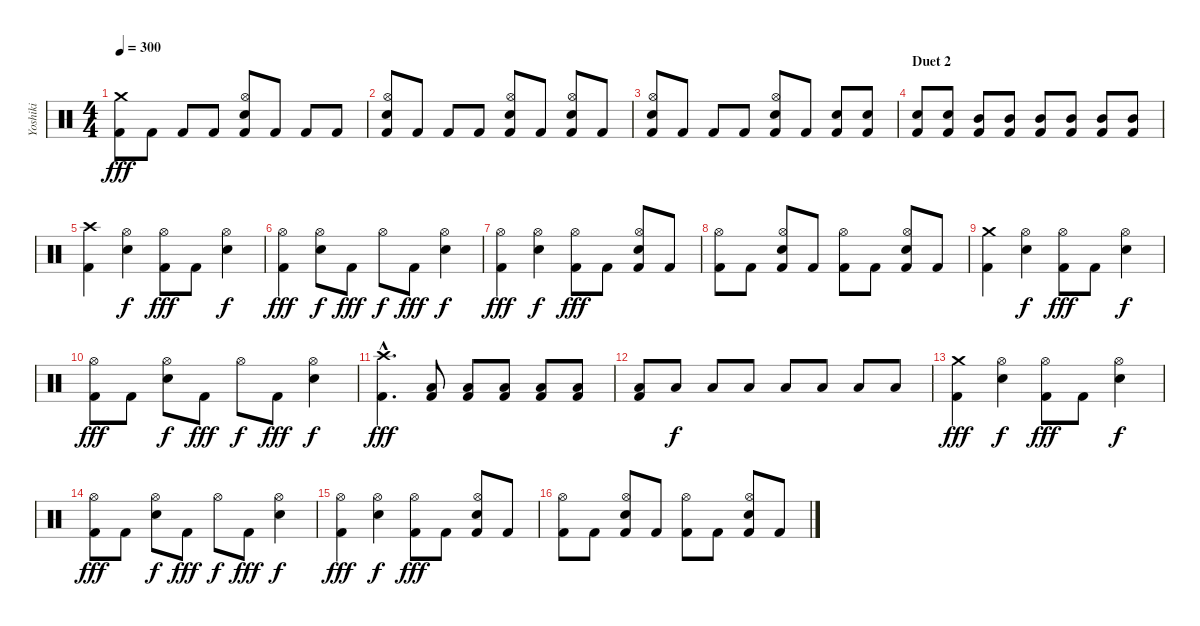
\track ("Yoshiki" "Yoshiki") {instrument percussion}
\staff {score}
\articulation defaults
\ts (4 4)
\tempo 300
\clef neutral
\ks c
("Crash medium (hit)" "Kick (hit) 2").8{dy fff} "Kick (hit) 2".8 "Kick (hit) 2".8 "Kick (hit) 2".8 ("Hi-Hat (open)" "Snare (hit) 2" "Kick (hit) 2").8 "Kick (hit) 2".8 "Kick (hit) 2".8 "Kick (hit) 2".8 |
("Hi-Hat (open)" "Snare (hit) 2" "Kick (hit) 2").8 "Kick (hit) 2".8 "Kick (hit) 2".8 "Kick (hit) 2".8 ("Hi-Hat (open)" "Snare (hit) 2" "Kick (hit) 2").8 "Kick (hit) 2".8 ("Hi-Hat (open)" "Snare (hit) 2" "Kick (hit) 2").8 "Kick (hit) 2".8 |
("Hi-Hat (open)" "Snare (hit) 2" "Kick (hit) 2").8 "Kick (hit) 2".8 "Kick (hit) 2".8 "Kick (hit) 2".8 ("Hi-Hat (open)" "Snare (hit) 2" "Kick (hit) 2").8 "Kick (hit) 2".8 ("Snare (hit) 2" "Kick (hit) 2").8 ("Snare (hit) 2" "Kick (hit) 2").8 |
\section ("" "Duet 2")
("Snare (hit) 2" "Kick (hit) 2").8 ("Snare (hit) 2" "Kick (hit) 2").8 ("Mid Tom (hit)" "Kick (hit) 2").8 ("Mid Tom (hit)" "Kick (hit) 2").8 ("Mid Tom (hit)" "Kick (hit) 2").8 ("Mid Tom (hit)" "Kick (hit) 2").8 ("Mid Tom (hit)" "Kick (hit) 2").8 ("Mid Tom (hit)" "Kick (hit) 2").8 |
("Crash high (hit)" "Kick (hit) 2").4 ("Hi-Hat (open)" "Snare (hit) 2").4{dy f} ("Hi-Hat (open)" "Kick (hit) 2").8{dy fff} "Kick (hit) 2".8 ("Hi-Hat (open)" "Snare (hit) 2").4{dy f} |
("Hi-Hat (open)" "Kick (hit) 2").4{dy fff} ("Hi-Hat (open)" "Snare (hit) 2").8{dy f} "Kick (hit) 2".8{dy fff} "Hi-Hat (open)".8{dy f} "Kick (hit) 2".8{dy fff} ("Hi-Hat (open)" "Snare (hit) 2").4{dy f} |
("Hi-Hat (open)" "Kick (hit) 2").4{dy fff} ("Hi-Hat (open)" "Snare (hit) 2").4{dy f} ("Hi-Hat (open)" "Kick (hit) 2").8{dy fff} "Kick (hit) 2".8 ("Hi-Hat (open)" "Snare (hit) 2" "Kick (hit) 2").8 "Kick (hit) 2".8 |
("Hi-Hat (open)" "Kick (hit) 2").8 "Kick (hit) 2".8 ("Hi-Hat (open)" "Snare (hit) 2" "Kick (hit) 2").8 "Kick (hit) 2".8 ("Hi-Hat (open)" "Kick (hit) 2").8 "Kick (hit) 2".8 ("Hi-Hat (open)" "Snare (hit) 2" "Kick (hit) 2").8 "Kick (hit) 2".8 |
("Crash medium (hit)" "Kick (hit) 2").4 ("Hi-Hat (open)" "Snare (hit) 2").4{dy f} ("Hi-Hat (open)" "Kick (hit) 2").8{dy fff} "Kick (hit) 2".8 ("Hi-Hat (open)" "Snare (hit) 2").4{dy f} |
("Hi-Hat (open)" "Kick (hit) 2").8{dy fff} "Kick (hit) 2".8 ("Hi-Hat (open)" "Snare (hit) 2").8{dy f} "Kick (hit) 2".8{dy fff} "Hi-Hat (open)".8{dy f} "Kick (hit) 2".8{dy fff} ("Hi-Hat (open)" "Snare (hit) 2").4{dy f} |
("Crash high (hit)"{hac} "Kick (hit) 2"{hac}).4{d dy fff} ("Low Floor Tom (hit)" "Kick (hit) 2").8 ("Low Floor Tom (hit)" "Kick (hit) 2").8 ("Low Floor Tom (hit)" "Kick (hit) 2").8 ("Low Floor Tom (hit)" "Kick (hit) 2").8 ("Low Floor Tom (hit)" "Kick (hit) 2").8 |
("Low Floor Tom (hit)" "Kick (hit) 2").8 "Low Floor Tom (hit)".8{dy f} "Low Floor Tom (hit)".8 "Low Floor Tom (hit)".8 "Low Floor Tom (hit)".8 "Low Floor Tom (hit)".8 "Low Floor Tom (hit)".8 "Low Floor Tom (hit)".8 |
("Crash medium (hit)" "Kick (hit) 2").4{dy fff} ("Hi-Hat (open)" "Snare (hit) 2").4{dy f} ("Hi-Hat (open)" "Kick (hit) 2").8{dy fff} "Kick (hit) 2".8 ("Hi-Hat (open)" "Snare (hit) 2").4{dy f} |
("Hi-Hat (open)" "Kick (hit) 2").8{dy fff} "Kick (hit) 2".8 ("Hi-Hat (open)" "Snare (hit) 2").8{dy f} "Kick (hit) 2".8{dy fff} "Hi-Hat (open)".8{dy f} "Kick (hit) 2".8{dy fff} ("Hi-Hat (open)" "Snare (hit) 2").4{dy f} |
("Hi-Hat (open)" "Kick (hit) 2").4{dy fff} ("Hi-Hat (open)" "Snare (hit) 2").4{dy f} ("Hi-Hat (open)" "Kick (hit) 2").8{dy fff} "Kick (hit) 2".8 ("Hi-Hat (open)" "Snare (hit) 2" "Kick (hit) 2").8 "Kick (hit) 2".8 |
("Hi-Hat (open)" "Kick (hit) 2").8 "Kick (hit) 2".8 ("Hi-Hat (open)" "Snare (hit) 2" "Kick (hit) 2").8 "Kick (hit) 2".8 ("Hi-Hat (open)" "Kick (hit) 2").8 "Kick (hit) 2".8 ("Hi-Hat (open)" "Snare (hit) 2" "Kick (hit) 2").8 "Kick (hit) 2".8
